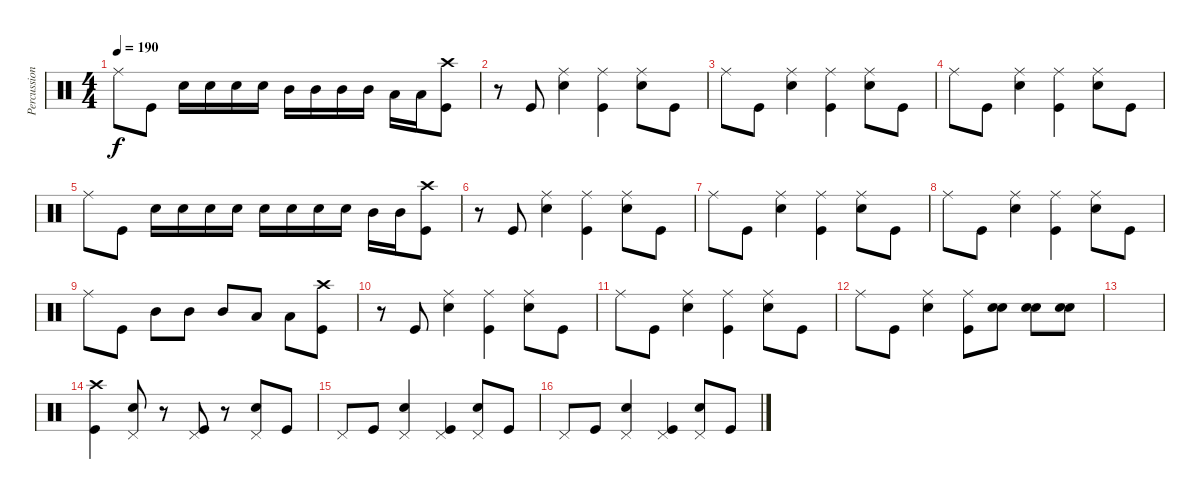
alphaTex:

\track ("Percussion" "Percussion") {mute instrument percussion}
\staff {score}
\articulation defaults
\ts (4 4)
\tempo 190
\clef neutral
\ks c "Ride (middle)".8{dy f} "Kick (hit)".8 "Snare (hit) 2".16 "Snare (hit) 2".16 "Snare (hit) 2".16 "Snare (hit) 2".16 "Mid Tom (hit)".16 "Mid Tom (hit)".16 "Mid Tom (hit)".16 "Mid Tom (hit)".16 "Low Tom (hit)".16 "Low Tom (hit)".16
("Crash high (hit)" "Kick (hit)").8 |
r.8 "Kick (hit)".8 ("Ride (middle)" "Snare (hit) 2").4 ("Ride (middle)" "Kick (hit)").4 ("Ride (middle)" "Snare (hit) 2").8 "Kick (hit)".8 |
"Ride (middle)".8 "Kick (hit)".8 ("Ride (middle)" "Snare (hit) 2").4 ("Ride (middle)" "Kick (hit)").4 ("Ride (middle)" "Snare (hit) 2").8 "Kick (hit)".8 |
"Ride (middle)".8 "Kick (hit)".8 ("Ride (middle)" "Snare (hit) 2").4 ("Ride (middle)" "Kick (hit)").4 ("Ride (middle)" "Snare (hit) 2").8 "Kick (hit)".8 |
"Ride (middle)".8 "Kick (hit)".8 "Snare (hit) 2".16 "Snare (hit) 2".16 "Snare (hit) 2".16 "Snare (hit) 2".16 "Snare (hit) 2".16 "Snare (hit) 2".16 "Snare (hit) 2".16 "Snare (hit) 2".16 "Mid Tom (hit)".16 "Mid Tom (hit)".16 ("Crash high (hit)" "Kick (hit)").8 |
r.8 "Kick (hit)".8 ("Ride (middle)" "Snare (hit) 2").4 ("Ride (middle)" "Kick (hit)").4 ("Ride (middle)" "Snare (hit) 2").8 "Kick (hit)".8 |
"Ride (middle)".8 "Kick (hit)".8 ("Ride (middle)" "Snare (hit) 2").4 ("Ride (middle)" "Kick (hit)").4 ("Ride (middle)" "Snare (hit) 2").8 "Kick (hit)".8 |
"Ride (middle)".8 "Kick (hit)".8 ("Ride (middle)" "Snare (hit) 2").4 ("Ride (middle)" "Kick (hit)").4 ("Ride (middle)" "Snare (hit) 2").8 "Kick (hit)".8 |
"Ride (middle)".8 "Kick (hit)".8 "Mid Tom (hit)".8 "Mid Tom (hit)".8 "Mid Tom (hit)".8 "Low Tom (hit)".8 "Low Tom (hit)".8 ("Crash high (hit)" "Kick (hit)").8 |
r.8 "Kick (hit)".8 ("Ride (middle)" "Snare (hit) 2").4 ("Ride (middle)" "Kick (hit)").4 ("Ride (middle)" "Snare (hit) 2").8 "Kick (hit)".8 |
"Ride (middle)".8 "Kick (hit)".8 ("Ride (middle)" "Snare (hit) 2").4 ("Ride (middle)" "Kick (hit)").4 ("Ride (middle)" "Snare (hit) 2").8 "Kick (hit)".8 |
"Ride (middle)".8 "Kick (hit)".8 ("Ride (middle)" "Snare (hit) 2").4 ("Ride (middle)" "Kick (hit)").8 ("Snare (hit) 2" "Snare (hit) 2").8 ("Snare (hit) 2" "Snare (hit) 2").8 ("Snare (hit) 2" "Snare (hit) 2").8 |
|
("Crash high (hit)" "Kick (hit)").4 ("Pedal Hi-Hat (hit)" "Snare (hit) 2").8 r.8 ("Pedal Hi-Hat (hit)" "Kick (hit)").8 r.8 ("Pedal Hi-Hat (hit)" "Snare (hit) 2").8 "Kick (hit)".8 |
"Pedal Hi-Hat (hit)".8 "Kick (hit)".8 ("Pedal Hi-Hat (hit)" "Snare (hit) 2").4 ("Pedal Hi-Hat (hit)" "Kick (hit)").4 ("Pedal Hi-Hat (hit)" "Snare (hit) 2").8 "Kick (hit)".8 |
"Pedal Hi-Hat (hit)".8 "Kick (hit)".8 ("Pedal Hi-Hat (hit)" "Snare (hit) 2").4 ("Pedal Hi-Hat (hit)" "Kick (hit)").4 ("Pedal Hi-Hat (hit)" "Snare (hit) 2").8 "Kick (hit)".8
